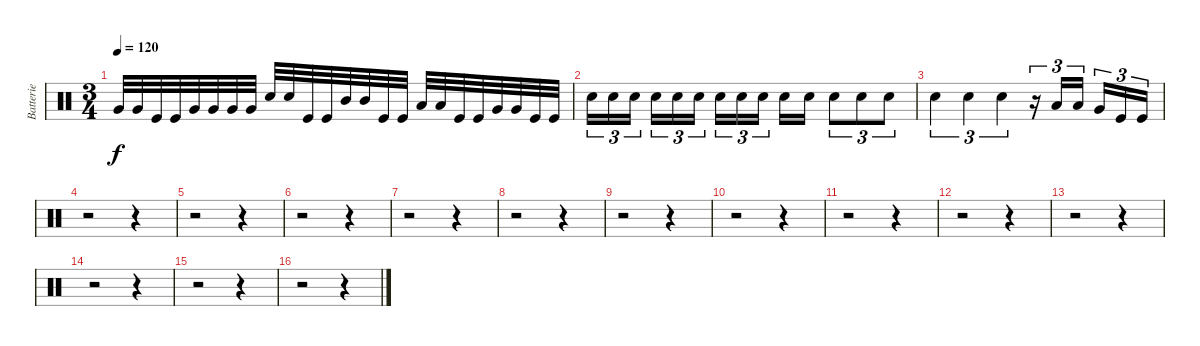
\track ("Batterie" "Batterie") {instrument percussion}
\staff {score}
\articulation defaults
\ts (3 4)
\tempo 120
\clef neutral
\ks c "Very Low Tom (hit)".32{dy f} "Very Low Tom (hit)".32 "Kick (hit)".32 "Kick (hit)".32 "Very Low Tom (hit)".32 "Very Low Tom (hit)".32 "Very Low Tom (hit)".32 "Very Low Tom (hit)".32 "Electric Snare (hit)".32 "Electric Snare (hit)".32 "Kick (hit)".32 "Kick (hit)".32 "Mid Tom (hit)".32 "Mid Tom (hit)".32 "Kick (hit)".32 "Kick (hit)".32 "Low Tom (hit)".32 "Low Tom (hit)".32 "Kick (hit)".32 "Kick (hit)".32 "Very Low Tom (hit)".32 "Very Low Tom (hit)".32 "Kick (hit)".32 "Kick (hit)".32
|
"Electric Snare (hit)".16{tu (3 2)} "Electric Snare (hit)".16{tu (3 2)} "Electric Snare (hit)".16{tu (3 2)} "Electric Snare (hit)".16{tu (3 2)} "Electric Snare (hit)".16{tu (3 2)} "Electric Snare (hit)".16{tu (3 2)} "Electric Snare (hit)".16{tu (3 2)} "Electric Snare (hit)".16{tu (3 2)} "Electric Snare (hit)".16{tu (3 2)} "Electric Snare (hit)".16 "Electric Snare (hit)".16 "Electric Snare (hit)".8{tu (3 2)} "Electric Snare (hit)".8{tu (3 2)} "Electric Snare (hit)".8{tu (3 2)} |
"Electric Snare (hit)".4{tu (3 2)} "Electric Snare (hit)".4{tu (3 2)} "Electric Snare (hit)".4{tu (3 2)} r.16{tu (3 2)} "Low Tom (hit)".16{tu (3 2)} "Low Tom (hit)".16{tu (3 2)} "Very Low Tom (hit)".16{tu (3 2)} "Kick (hit)".16{tu (3 2)} "Kick (hit)".16{tu (3 2)} |
r.2 r.4 |
r.2 r.4 |
r.2 r.4 |
r.2 r.4 |
r.2 r.4 |
r.2 r.4 |
r.2 r.4 |
r.2 r.4 |
r.2 r.4 |
r.2 r.4 |
r.2 r.4 |
r.2 r.4 |
r.2 r.4
